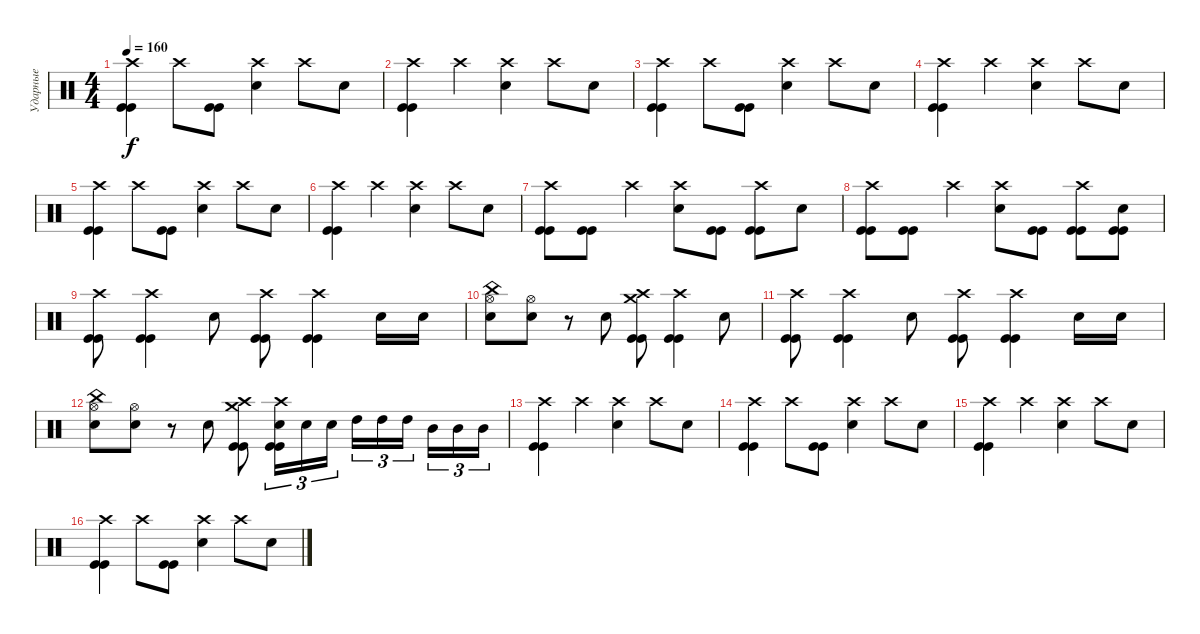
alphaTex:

\track ("Ударные" "Ударные") {instrument percussion}
\staff {score}
\articulation defaults
\ts (4 4)
\tempo 160
\clef neutral
\ks c
("Crash high (hit)" "Kick (hit)" "Kick (hit)").4{dy f} "Crash high (hit)".8 ("Kick (hit)" "Kick (hit)").8 ("Crash high (hit)" "Electric Snare (hit)").4 "Crash high (hit)".8 "Electric Snare (hit)".8 |
("Crash high (hit)" "Kick (hit)" "Kick (hit)").4 "Crash high (hit)".4 ("Crash high (hit)" "Electric Snare (hit)").4 "Crash high (hit)".8 "Electric Snare (hit)".8 |
("Crash high (hit)" "Kick (hit)" "Kick (hit)").4 "Crash high (hit)".8 ("Kick (hit)" "Kick (hit)").8 ("Crash high (hit)" "Electric Snare (hit)").4 "Crash high (hit)".8 "Electric Snare (hit)".8 |
("Crash high (hit)" "Kick (hit)" "Kick (hit)").4 "Crash high (hit)".4 ("Crash high (hit)" "Electric Snare (hit)").4 "Crash high (hit)".8 "Electric Snare (hit)".8 |
("Crash high (hit)" "Kick (hit)" "Kick (hit)").4 "Crash high (hit)".8 ("Kick (hit)" "Kick (hit)").8 ("Crash high (hit)" "Electric Snare (hit)").4 "Crash high (hit)".8 "Electric Snare (hit)".8 |
("Crash high (hit)" "Kick (hit)" "Kick (hit)").4 "Crash high (hit)".4 ("Crash high (hit)" "Electric Snare (hit)").4 "Crash high (hit)".8 "Electric Snare (hit)".8 |
("Crash high (hit)" "Kick (hit)" "Kick (hit)").8 ("Kick (hit)" "Kick (hit)").8 "Crash high (hit)".4 ("Crash high (hit)" "Electric Snare (hit)").8 ("Kick (hit)" "Kick (hit)").8 ("Crash high (hit)" "Kick (hit)" "Kick (hit)").8 "Electric Snare (hit)".8 |
("Crash high (hit)" "Kick (hit)" "Kick (hit)").8 ("Kick (hit)" "Kick (hit)").8 "Crash high (hit)".4 ("Crash high (hit)" "Electric Snare (hit)").8 ("Kick (hit)" "Kick (hit)").8 ("Crash high (hit)" "Kick (hit)" "Kick (hit)").8 ("Electric Snare (hit)" "Kick (hit)" "Kick (hit)").8 |
("Crash high (hit)" "Kick (hit)" "Kick (hit)").8 ("Crash high (hit)" "Kick (hit)" "Kick (hit)").4 "Electric Snare (hit)".8 ("Crash high (hit)" "Kick (hit)" "Kick (hit)").8 ("Crash high (hit)" "Kick (hit)" "Kick (hit)").4 "Electric Snare (hit)".16 "Electric Snare (hit)".16 |
("Hi-Hat (open)" "Electric Snare (hit)" "China (hit)").8 ("Hi-Hat (open)" "Electric Snare (hit)").8 r.8 "Electric Snare (hit)".8 ("Crash high (hit)" "Crash medium (hit)" "Kick (hit)" "Kick (hit)").8 ("Crash high (hit)" "Kick (hit)" "Kick (hit)").4 "Electric Snare (hit)".8 |
("Crash high (hit)" "Kick (hit)" "Kick (hit)").8 ("Crash high (hit)" "Kick (hit)" "Kick (hit)").4 "Electric Snare (hit)".8 ("Crash high (hit)" "Kick (hit)" "Kick (hit)").8 ("Crash high (hit)" "Kick (hit)" "Kick (hit)").4 "Electric Snare (hit)".16 "Electric Snare (hit)".16 |
("Hi-Hat (open)" "Electric Snare (hit)" "China (hit)").8 ("Hi-Hat (open)" "Electric Snare (hit)").8 r.8 "Electric Snare (hit)".8 ("Crash high (hit)" "Crash medium (hit)" "Kick (hit)" "Kick (hit)").8 ("Crash high (hit)" "Electric Snare (hit)" "Kick (hit)" "Kick (hit)").16{tu (3 2)} "Electric Snare (hit)".16{tu (3 2)} "Electric Snare (hit)".16{tu (3 2)} "High Tom (hit)".16{tu (3 2)} "High Tom (hit)".16{tu (3 2)} "High Tom (hit)".16{tu (3 2) beam splitsecondary} "Mid Tom (hit)".16{tu (3 2)} "Mid Tom (hit)".16{tu (3 2)} "Mid Tom (hit)".16{tu (3 2)} |
("Crash high (hit)" "Kick (hit)" "Kick (hit)").4 "Crash high (hit)".4 ("Crash high (hit)" "Electric Snare (hit)").4 "Crash high (hit)".8 "Electric Snare (hit)".8 |
("Crash high (hit)" "Kick (hit)" "Kick (hit)").4 "Crash high (hit)".8 ("Kick (hit)" "Kick (hit)").8 ("Crash high (hit)" "Electric Snare (hit)").4 "Crash high (hit)".8 "Electric Snare (hit)".8 |
("Crash high (hit)" "Kick (hit)" "Kick (hit)").4 "Crash high (hit)".4 ("Crash high (hit)" "Electric Snare (hit)").4 "Crash high (hit)".8 "Electric Snare (hit)".8 |
("Crash high (hit)" "Kick (hit)" "Kick (hit)").4 "Crash high (hit)".8 ("Kick (hit)" "Kick (hit)").8 ("Crash high (hit)" "Electric Snare (hit)").4 "Crash high (hit)".8 "Electric Snare (hit)".8
